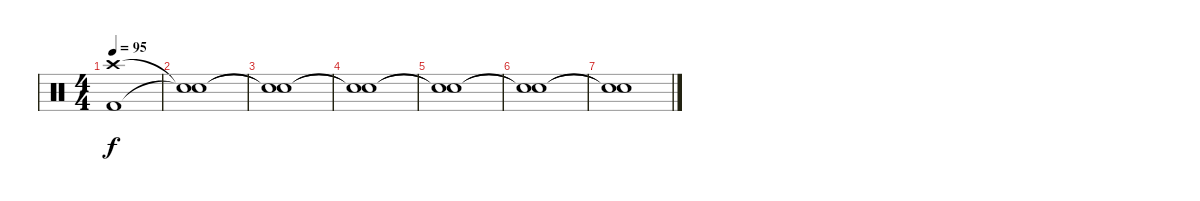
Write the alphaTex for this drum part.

\track (" " " ") {instrument percussion}
\staff {score}
\articulation defaults
\ts (4 4)
\tempo 95
\clef neutral
\ks c
("Crash high (hit)" "Kick (hit) 2").1{dy f} |
("Snare (hit)"{t} "Snare (hit)"{t}).1 |
("Snare (hit)"{t} "Snare (hit)"{t}).1 |
("Snare (hit)"{t} "Snare (hit)"{t}).1 |
("Snare (hit)"{t} "Snare (hit)"{t}).1 |
("Snare (hit)"{t} "Snare (hit)"{t}).1 |
("Snare (hit)"{t} "Snare (hit)"{t}).1
